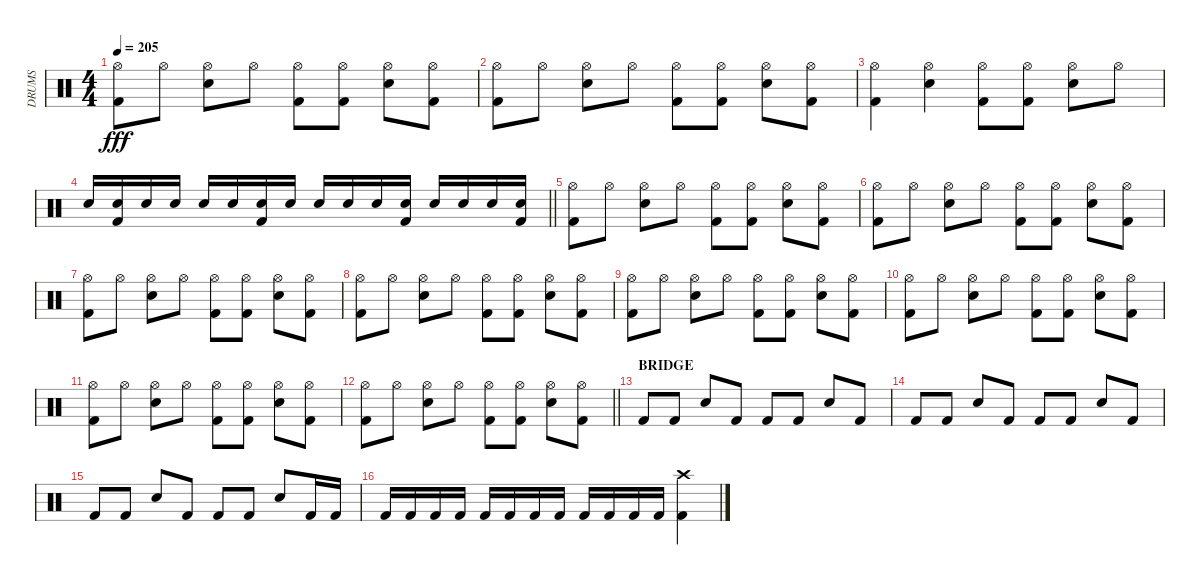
\track ("DRUMS" "DRUMS") {instrument percussion}
\staff {score}
\articulation defaults
\ts (4 4)
\tempo 205
\clef neutral
\ks c
("Hi-Hat (open)" "Kick (hit) 2").8{dy fff} "Hi-Hat (open)".8 ("Hi-Hat (open)" "Electric Snare (hit)").8 "Hi-Hat (open)".8 ("Hi-Hat (open)" "Kick (hit) 2").8 ("Hi-Hat (open)" "Kick (hit) 2").8 ("Hi-Hat (open)" "Electric Snare (hit)").8 ("Hi-Hat (open)" "Kick (hit) 2").8 |
("Hi-Hat (open)" "Kick (hit) 2").8 "Hi-Hat (open)".8 ("Hi-Hat (open)" "Electric Snare (hit)").8 "Hi-Hat (open)".8 ("Hi-Hat (open)" "Kick (hit) 2").8 ("Hi-Hat (open)" "Kick (hit) 2").8 ("Hi-Hat (open)" "Electric Snare (hit)").8 ("Hi-Hat (open)" "Kick (hit) 2").8 |
("Hi-Hat (open)" "Kick (hit) 2").4 ("Hi-Hat (open)" "Electric Snare (hit)").4 ("Hi-Hat (open)" "Kick (hit) 2").8 ("Hi-Hat (open)" "Kick (hit) 2").8 ("Hi-Hat (open)" "Electric Snare (hit)").8 "Hi-Hat (open)".8 |
\barLineRight lightlight "Electric Snare (hit)".16
("Electric Snare (hit)" "Kick (hit) 2").16 "Electric Snare (hit)".16 "Electric Snare (hit)".16 "Electric Snare (hit)".16 "Electric Snare (hit)".16 ("Electric Snare (hit)" "Kick (hit) 2").16 "Electric Snare (hit)".16 "Electric Snare (hit)".16 "Electric Snare (hit)".16 "Electric Snare (hit)".16 ("Electric Snare (hit)" "Kick (hit) 2").16 "Electric Snare (hit)".16 "Electric Snare (hit)".16 "Electric Snare (hit)".16 ("Electric Snare (hit)" "Kick (hit) 2").16 |
("Hi-Hat (open)" "Kick (hit) 2").8 "Hi-Hat (open)".8 ("Hi-Hat (open)" "Electric Snare (hit)").8 "Hi-Hat (open)".8 ("Hi-Hat (open)" "Kick (hit) 2").8 ("Hi-Hat (open)" "Kick (hit) 2").8 ("Hi-Hat (open)" "Electric Snare (hit)").8 ("Hi-Hat (open)" "Kick (hit) 2").8 |
("Hi-Hat (open)" "Kick (hit) 2").8 "Hi-Hat (open)".8 ("Hi-Hat (open)" "Electric Snare (hit)").8 "Hi-Hat (open)".8 ("Hi-Hat (open)" "Kick (hit) 2").8 ("Hi-Hat (open)" "Kick (hit) 2").8 ("Hi-Hat (open)" "Electric Snare (hit)").8 ("Hi-Hat (open)" "Kick (hit) 2").8 |
("Hi-Hat (open)" "Kick (hit) 2").8 "Hi-Hat (open)".8 ("Hi-Hat (open)" "Electric Snare (hit)").8 "Hi-Hat (open)".8 ("Hi-Hat (open)" "Kick (hit) 2").8 ("Hi-Hat (open)" "Kick (hit) 2").8 ("Hi-Hat (open)" "Electric Snare (hit)").8 ("Hi-Hat (open)" "Kick (hit) 2").8 |
("Hi-Hat (open)" "Kick (hit) 2").8 "Hi-Hat (open)".8 ("Hi-Hat (open)" "Electric Snare (hit)").8 "Hi-Hat (open)".8 ("Hi-Hat (open)" "Kick (hit) 2").8 ("Hi-Hat (open)" "Kick (hit) 2").8 ("Hi-Hat (open)" "Electric Snare (hit)").8 ("Hi-Hat (open)" "Kick (hit) 2").8 |
("Hi-Hat (open)" "Kick (hit) 2").8 "Hi-Hat (open)".8 ("Hi-Hat (open)" "Electric Snare (hit)").8 "Hi-Hat (open)".8 ("Hi-Hat (open)" "Kick (hit) 2").8 ("Hi-Hat (open)" "Kick (hit) 2").8 ("Hi-Hat (open)" "Electric Snare (hit)").8 ("Hi-Hat (open)" "Kick (hit) 2").8 |
("Hi-Hat (open)" "Kick (hit) 2").8 "Hi-Hat (open)".8 ("Hi-Hat (open)" "Electric Snare (hit)").8 "Hi-Hat (open)".8 ("Hi-Hat (open)" "Kick (hit) 2").8 ("Hi-Hat (open)" "Kick (hit) 2").8 ("Hi-Hat (open)" "Electric Snare (hit)").8 ("Hi-Hat (open)" "Kick (hit) 2").8 |
("Hi-Hat (open)" "Kick (hit) 2").8 "Hi-Hat (open)".8 ("Hi-Hat (open)" "Electric Snare (hit)").8 "Hi-Hat (open)".8 ("Hi-Hat (open)" "Kick (hit) 2").8 ("Hi-Hat (open)" "Kick (hit) 2").8 ("Hi-Hat (open)" "Electric Snare (hit)").8 ("Hi-Hat (open)" "Kick (hit) 2").8 |
\barLineRight lightlight
("Hi-Hat (open)" "Kick (hit) 2").8 "Hi-Hat (open)".8 ("Hi-Hat (open)" "Electric Snare (hit)").8 "Hi-Hat (open)".8 ("Hi-Hat (open)" "Kick (hit) 2").8 ("Hi-Hat (open)" "Kick (hit) 2").8 ("Hi-Hat (open)" "Electric Snare (hit)").8 ("Hi-Hat (open)" "Kick (hit) 2").8 |
\section ("" "BRIDGE")
"Kick (hit) 2".8 "Kick (hit) 2".8 "Electric Snare (hit)".8 "Kick (hit) 2".8 "Kick (hit) 2".8 "Kick (hit) 2".8 "Electric Snare (hit)".8 "Kick (hit) 2".8 |
"Kick (hit) 2".8 "Kick (hit) 2".8 "Electric Snare (hit)".8 "Kick (hit) 2".8 "Kick (hit) 2".8 "Kick (hit) 2".8 "Electric Snare (hit)".8 "Kick (hit) 2".8 |
"Kick (hit) 2".8 "Kick (hit) 2".8 "Electric Snare (hit)".8 "Kick (hit) 2".8 "Kick (hit) 2".8 "Kick (hit) 2".8 "Electric Snare (hit)".8 "Kick (hit) 2".16 "Kick (hit) 2".16 |
"Kick (hit) 2".16 "Kick (hit) 2".16 "Kick (hit) 2".16 "Kick (hit) 2".16 "Kick (hit) 2".16 "Kick (hit) 2".16 "Kick (hit) 2".16 "Kick (hit) 2".16 "Kick (hit) 2".16 "Kick (hit) 2".16 "Kick (hit) 2".16 "Kick (hit) 2".16 ("Crash high (hit)" "Kick (hit) 2").4
